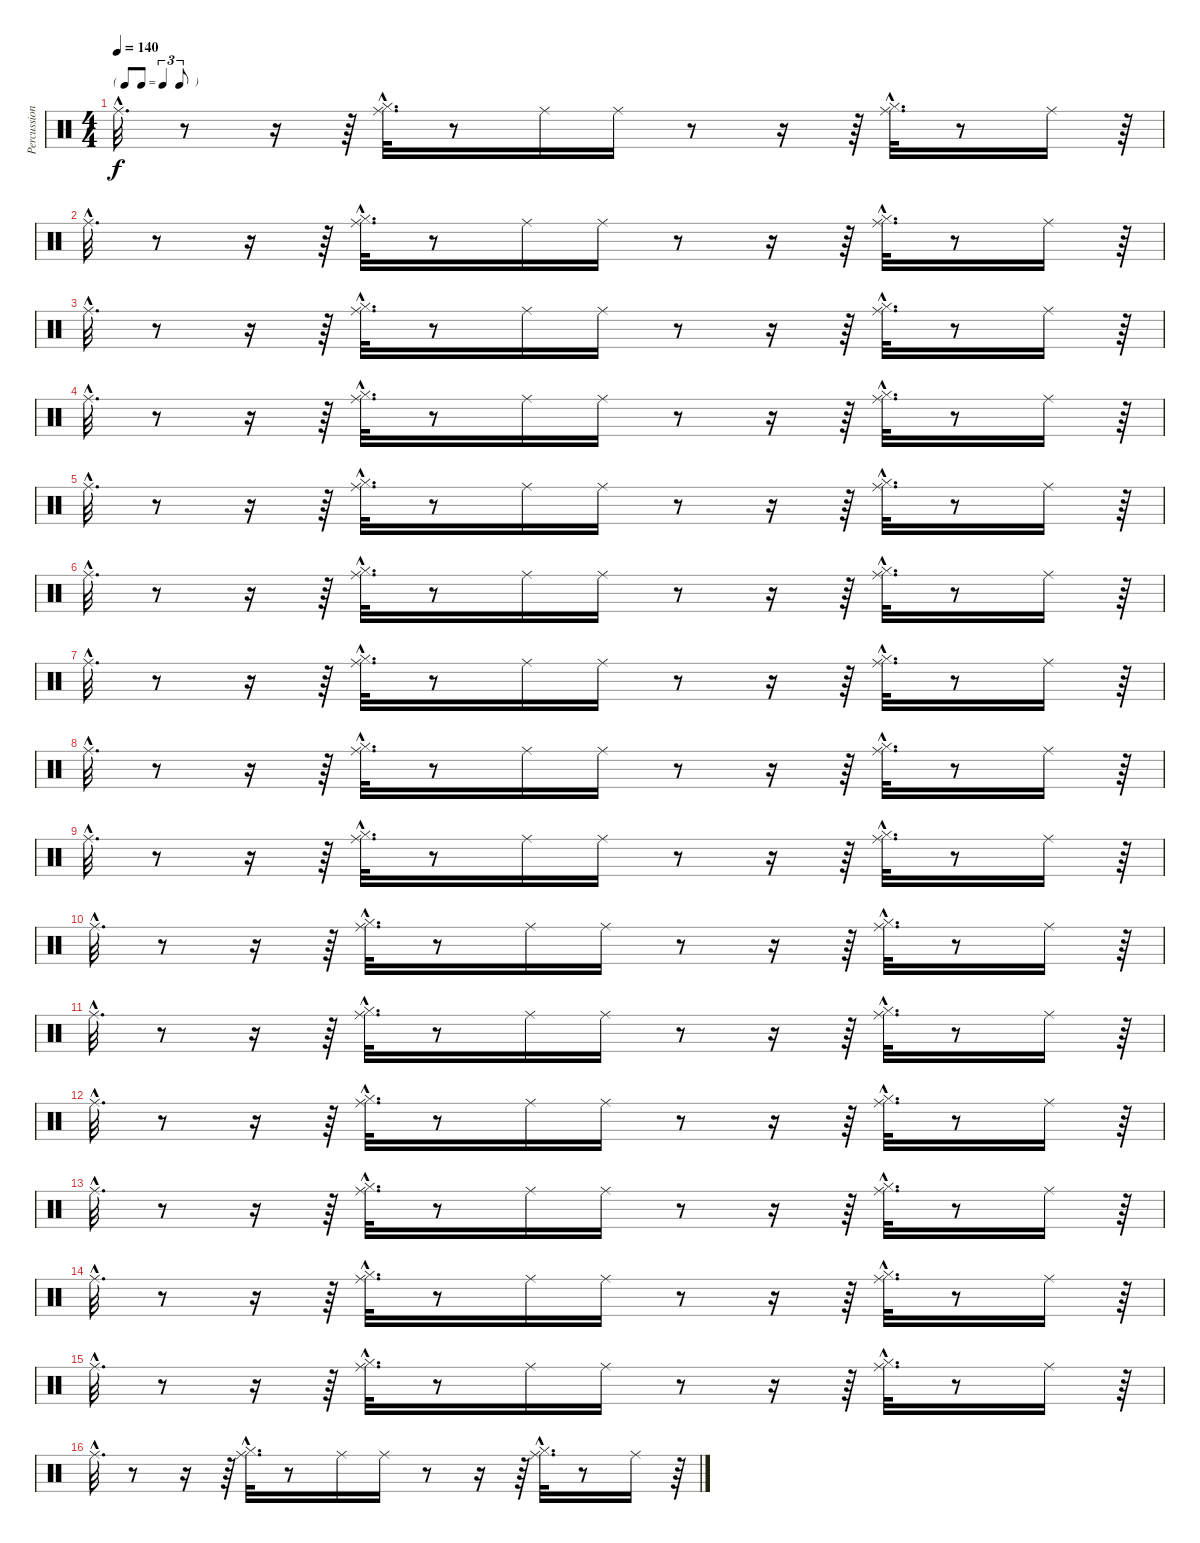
\track ("Percussions" "Percussion") {instrument percussion}
\staff {score}
\articulation defaults
\ts (4 4)
\tf triplet8th
\tempo 140
\clef neutral
\ks c "Ride (middle)"{hac}.32{d dy f}
r.8 r.16 r.64 ("Hi-Hat (closed)"{hac} "Ride (middle)"{hac}).32{d} r.8 "Ride (middle)".16 "Ride (middle)".16 r.8 r.16 r.64 ("Hi-Hat (closed)"{hac} "Ride (middle)"{hac}).32{d} r.8 "Ride (middle)".16 r.64 |
"Ride (middle)"{hac}.32{d} r.8 r.16 r.64 ("Hi-Hat (closed)"{hac} "Ride (middle)"{hac}).32{d} r.8 "Ride (middle)".16 "Ride (middle)".16 r.8 r.16 r.64 ("Hi-Hat (closed)"{hac} "Ride (middle)"{hac}).32{d} r.8 "Ride (middle)".16 r.64 |
"Ride (middle)"{hac}.32{d} r.8 r.16 r.64 ("Hi-Hat (closed)"{hac} "Ride (middle)"{hac}).32{d} r.8 "Ride (middle)".16 "Ride (middle)".16 r.8 r.16 r.64 ("Hi-Hat (closed)"{hac} "Ride (middle)"{hac}).32{d} r.8 "Ride (middle)".16 r.64 |
"Ride (middle)"{hac}.32{d} r.8 r.16 r.64 ("Hi-Hat (closed)"{hac} "Ride (middle)"{hac}).32{d} r.8 "Ride (middle)".16 "Ride (middle)".16 r.8 r.16 r.64 ("Hi-Hat (closed)"{hac} "Ride (middle)"{hac}).32{d} r.8 "Ride (middle)".16 r.64 |
"Ride (middle)"{hac}.32{d} r.8 r.16 r.64 ("Hi-Hat (closed)"{hac} "Ride (middle)"{hac}).32{d} r.8 "Ride (middle)".16 "Ride (middle)".16 r.8 r.16 r.64 ("Hi-Hat (closed)"{hac} "Ride (middle)"{hac}).32{d} r.8 "Ride (middle)".16 r.64 |
"Ride (middle)"{hac}.32{d} r.8 r.16 r.64 ("Hi-Hat (closed)"{hac} "Ride (middle)"{hac}).32{d} r.8 "Ride (middle)".16 "Ride (middle)".16 r.8 r.16 r.64 ("Hi-Hat (closed)"{hac} "Ride (middle)"{hac}).32{d} r.8 "Ride (middle)".16 r.64 |
"Ride (middle)"{hac}.32{d} r.8 r.16 r.64 ("Hi-Hat (closed)"{hac} "Ride (middle)"{hac}).32{d} r.8 "Ride (middle)".16 "Ride (middle)".16 r.8 r.16 r.64 ("Hi-Hat (closed)"{hac} "Ride (middle)"{hac}).32{d} r.8 "Ride (middle)".16 r.64 |
"Ride (middle)"{hac}.32{d} r.8 r.16 r.64 ("Hi-Hat (closed)"{hac} "Ride (middle)"{hac}).32{d} r.8 "Ride (middle)".16 "Ride (middle)".16 r.8 r.16 r.64 ("Hi-Hat (closed)"{hac} "Ride (middle)"{hac}).32{d} r.8 "Ride (middle)".16 r.64 |
"Ride (middle)"{hac}.32{d} r.8 r.16 r.64 ("Hi-Hat (closed)"{hac} "Ride (middle)"{hac}).32{d} r.8 "Ride (middle)".16 "Ride (middle)".16 r.8 r.16 r.64 ("Hi-Hat (closed)"{hac} "Ride (middle)"{hac}).32{d} r.8 "Ride (middle)".16 r.64 |
"Ride (middle)"{hac}.32{d} r.8 r.16 r.64 ("Hi-Hat (closed)"{hac} "Ride (middle)"{hac}).32{d} r.8 "Ride (middle)".16 "Ride (middle)".16 r.8 r.16 r.64 ("Hi-Hat (closed)"{hac} "Ride (middle)"{hac}).32{d} r.8 "Ride (middle)".16 r.64 |
"Ride (middle)"{hac}.32{d} r.8 r.16 r.64 ("Hi-Hat (closed)"{hac} "Ride (middle)"{hac}).32{d} r.8 "Ride (middle)".16 "Ride (middle)".16 r.8 r.16 r.64 ("Hi-Hat (closed)"{hac} "Ride (middle)"{hac}).32{d} r.8 "Ride (middle)".16 r.64 |
"Ride (middle)"{hac}.32{d} r.8 r.16 r.64 ("Hi-Hat (closed)"{hac} "Ride (middle)"{hac}).32{d} r.8 "Ride (middle)".16 "Ride (middle)".16 r.8 r.16 r.64 ("Hi-Hat (closed)"{hac} "Ride (middle)"{hac}).32{d} r.8 "Ride (middle)".16 r.64 |
"Ride (middle)"{hac}.32{d} r.8 r.16 r.64 ("Hi-Hat (closed)"{hac} "Ride (middle)"{hac}).32{d} r.8 "Ride (middle)".16 "Ride (middle)".16 r.8 r.16 r.64 ("Hi-Hat (closed)"{hac} "Ride (middle)"{hac}).32{d} r.8 "Ride (middle)".16 r.64 |
"Ride (middle)"{hac}.32{d} r.8 r.16 r.64 ("Hi-Hat (closed)"{hac} "Ride (middle)"{hac}).32{d} r.8 "Ride (middle)".16 "Ride (middle)".16 r.8 r.16 r.64 ("Hi-Hat (closed)"{hac} "Ride (middle)"{hac}).32{d} r.8 "Ride (middle)".16 r.64 |
"Ride (middle)"{hac}.32{d} r.8 r.16 r.64 ("Hi-Hat (closed)"{hac} "Ride (middle)"{hac}).32{d} r.8 "Ride (middle)".16 "Ride (middle)".16 r.8 r.16 r.64 ("Hi-Hat (closed)"{hac} "Ride (middle)"{hac}).32{d} r.8 "Ride (middle)".16 r.64 |
"Ride (middle)"{hac}.32{d} r.8 r.16 r.64 ("Hi-Hat (closed)"{hac} "Ride (middle)"{hac}).32{d} r.8 "Ride (middle)".16 "Ride (middle)".16 r.8 r.16 r.64 ("Hi-Hat (closed)"{hac} "Ride (middle)"{hac}).32{d} r.8 "Ride (middle)".16 r.64
